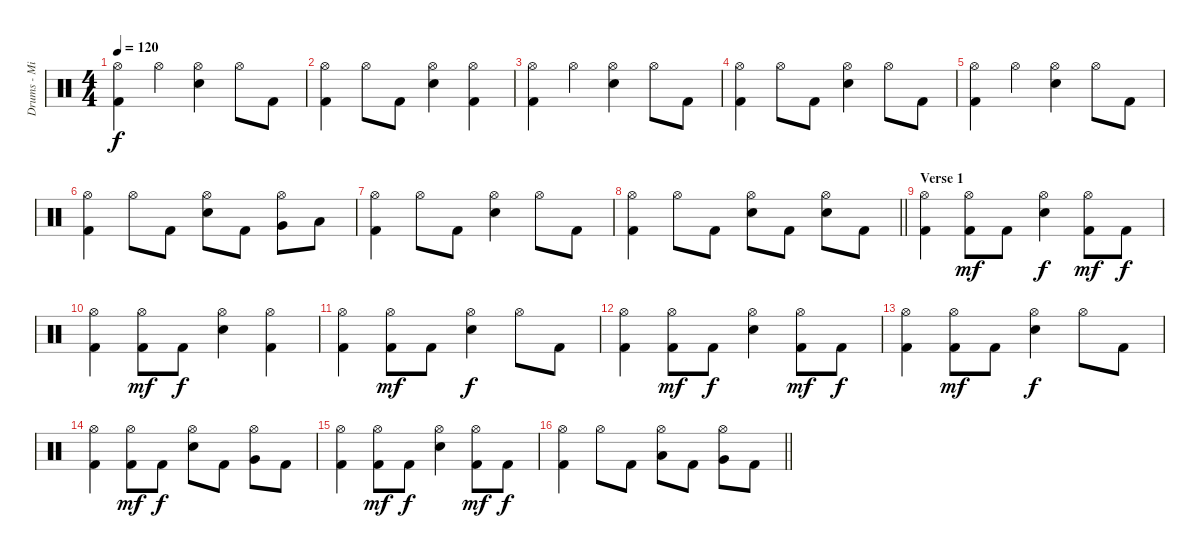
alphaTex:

\track ("Drums - Mikko" "Drums - Mi") {instrument percussion}
\staff {score}
\articulation defaults
\ts (4 4)
\tempo 120
\clef neutral
\ks c
("Hi-Hat (open)" "Kick (hit) 2").4{dy f} "Hi-Hat (open)".4 ("Hi-Hat (open)" "Snare (hit) 2").4 "Hi-Hat (open)".8 "Kick (hit) 2".8 |
("Hi-Hat (open)" "Kick (hit) 2").4 "Hi-Hat (open)".8 "Kick (hit) 2".8 ("Hi-Hat (open)" "Snare (hit) 2").4 ("Hi-Hat (open)" "Kick (hit) 2").4 |
("Hi-Hat (open)" "Kick (hit) 2").4 "Hi-Hat (open)".4 ("Hi-Hat (open)" "Snare (hit) 2").4 "Hi-Hat (open)".8 "Kick (hit) 2".8 |
("Hi-Hat (open)" "Kick (hit) 2").4 "Hi-Hat (open)".8 "Kick (hit) 2".8 ("Hi-Hat (open)" "Snare (hit) 2").4 "Hi-Hat (open)".8 "Kick (hit) 2".8 |
("Hi-Hat (open)" "Kick (hit) 2").4 "Hi-Hat (open)".4 ("Hi-Hat (open)" "Snare (hit) 2").4 "Hi-Hat (open)".8 "Kick (hit) 2".8 |
("Hi-Hat (open)" "Kick (hit) 2").4 "Hi-Hat (open)".8 "Kick (hit) 2".8 ("Hi-Hat (open)" "Snare (hit) 2").8 "Kick (hit) 2".8 ("Hi-Hat (open)" "Very Low Tom (hit)").8 "Low Floor Tom (hit)".8 |
("Hi-Hat (open)" "Kick (hit) 2").4 "Hi-Hat (open)".8 "Kick (hit) 2".8 ("Hi-Hat (open)" "Snare (hit) 2").4 "Hi-Hat (open)".8 "Kick (hit) 2".8 |
\barLineRight lightlight
("Hi-Hat (open)" "Kick (hit) 2").4 "Hi-Hat (open)".8 "Kick (hit) 2".8 ("Hi-Hat (open)" "Snare (hit) 2").8 "Kick (hit) 2".8 ("Hi-Hat (open)" "Snare (hit) 2").8 "Kick (hit) 2".8 |
\section ("" "Verse 1")
("Hi-Hat (open)" "Kick (hit) 2").4 ("Hi-Hat (open)" "Kick (hit) 2").8{dy mf} "Kick (hit) 2".8 ("Hi-Hat (open)" "Snare (hit) 2").4{dy f} ("Hi-Hat (open)" "Kick (hit) 2").8{dy mf} "Kick (hit) 2".8{dy f} |
("Hi-Hat (open)" "Kick (hit) 2").4 ("Hi-Hat (open)" "Kick (hit) 2").8{dy mf} "Kick (hit) 2".8{dy f} ("Hi-Hat (open)" "Snare (hit) 2").4 ("Hi-Hat (open)" "Kick (hit) 2").4 |
("Hi-Hat (open)" "Kick (hit) 2").4 ("Hi-Hat (open)" "Kick (hit) 2").8{dy mf} "Kick (hit) 2".8 ("Hi-Hat (open)" "Snare (hit) 2").4{dy f} "Hi-Hat (open)".8 "Kick (hit) 2".8 |
("Hi-Hat (open)" "Kick (hit) 2").4 ("Hi-Hat (open)" "Kick (hit) 2").8{dy mf} "Kick (hit) 2".8{dy f} ("Hi-Hat (open)" "Snare (hit) 2").4 ("Hi-Hat (open)" "Kick (hit) 2").8{dy mf} "Kick (hit) 2".8{dy f} |
("Hi-Hat (open)" "Kick (hit) 2").4 ("Hi-Hat (open)" "Kick (hit) 2").8{dy mf} "Kick (hit) 2".8 ("Hi-Hat (open)" "Snare (hit) 2").4{dy f} "Hi-Hat (open)".8 "Kick (hit) 2".8 |
("Hi-Hat (open)" "Kick (hit) 2").4 ("Hi-Hat (open)" "Kick (hit) 2").8{dy mf} "Kick (hit) 2".8{dy f} ("Hi-Hat (open)" "Snare (hit) 2").8 "Kick (hit) 2".8 ("Hi-Hat (open)" "Very Low Tom (hit)").8 "Kick (hit) 2".8 |
("Hi-Hat (open)" "Kick (hit) 2").4 ("Hi-Hat (open)" "Kick (hit) 2").8{dy mf} "Kick (hit) 2".8{dy f} ("Hi-Hat (open)" "Snare (hit) 2").4 ("Hi-Hat (open)" "Kick (hit) 2").8{dy mf} "Kick (hit) 2".8{dy f} |
\barLineRight lightlight
("Hi-Hat (open)" "Kick (hit) 2").4 "Hi-Hat (open)".8 "Kick (hit) 2".8 ("Hi-Hat (open)" "Low Tom (hit)").8 "Kick (hit) 2".8 ("Hi-Hat (open)" "Very Low Tom (hit)").8 "Kick (hit) 2".8
